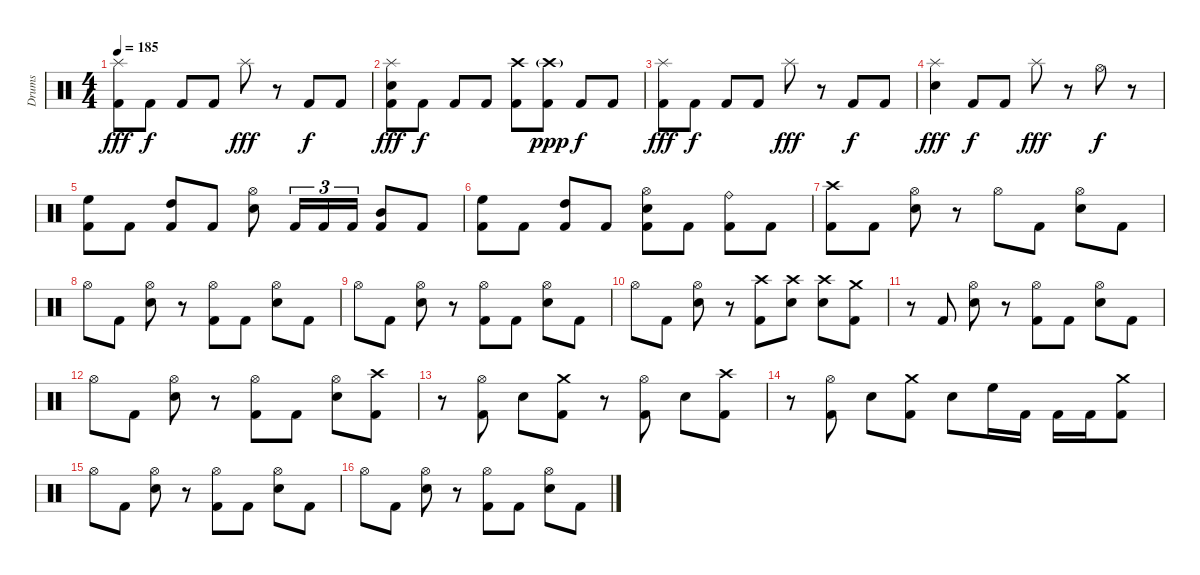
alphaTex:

\track ("Drums" "Drums") {instrument percussion}
\staff {score}
\articulation defaults
\ts (4 4)
\tempo 185
\clef neutral
\ks c
("Splash (hit)" "Kick (hit) 2").8{dy fff} "Kick (hit) 2".8{dy f} "Kick (hit) 2".8 "Kick (hit) 2".8 "Splash (hit)".8{dy fff} r.8 "Kick (hit) 2".8{dy f} "Kick (hit) 2".8 |
("Splash (hit)" "Electric Snare (hit)" "Kick (hit) 2").8{dy fff} "Kick (hit) 2".8{dy f} "Kick (hit) 2".8 "Kick (hit) 2".8 ("Crash high (hit)" "Kick (hit) 2").8 ("Crash high (hit)"{g} "Kick (hit) 2").8{dy ppp} "Kick (hit) 2".8{dy f} "Kick (hit) 2".8 |
("Splash (hit)" "Kick (hit) 2").8{dy fff} "Kick (hit) 2".8{dy f} "Kick (hit) 2".8 "Kick (hit) 2".8 "Splash (hit)".8{dy fff} r.8 "Kick (hit) 2".8{dy f} "Kick (hit) 2".8 |
("Splash (hit)" "Electric Snare (hit)").4{dy fff} "Kick (hit) 2".8{dy f} "Kick (hit) 2".8 "Splash (hit)".8{dy fff} r.8 "Hi-Hat (open)".8{dy f} r.8 |
("High Floor Tom (hit)" "Kick (hit) 2").8 "Kick (hit) 2".8 ("High Tom (hit)" "Kick (hit) 2").8 "Kick (hit) 2".8 ("Hi-Hat (open)" "Electric Snare (hit)").8 "Kick (hit) 2".16{tu (3 2)} "Kick (hit) 2".16{tu (3 2)} "Kick (hit) 2".16{tu (3 2)} ("Mid Tom (hit)" "Kick (hit) 2").8 "Kick (hit) 2".8 |
("High Floor Tom (hit)" "Kick (hit) 2").8 "Kick (hit) 2".8 ("High Tom (hit)" "Kick (hit) 2").8 "Kick (hit) 2".8 ("Hi-Hat (open)" "Electric Snare (hit)" "Kick (hit) 2").8 "Kick (hit) 2".8 ("Ride (bell)" "Kick (hit) 2").8 "Kick (hit) 2".8 |
("Crash high (hit)" "Kick (hit) 2").8 "Kick (hit) 2".8 ("Hi-Hat (open)" "Electric Snare (hit)").8 r.8 "Hi-Hat (open)".8 "Kick (hit) 2".8 ("Hi-Hat (open)" "Electric Snare (hit)").8 "Kick (hit) 2".8 |
"Hi-Hat (open)".8 "Kick (hit) 2".8 ("Hi-Hat (open)" "Electric Snare (hit)").8 r.8 ("Hi-Hat (open)" "Kick (hit) 2").8 "Kick (hit) 2".8 ("Hi-Hat (open)" "Electric Snare (hit)").8 "Kick (hit) 2".8 |
"Hi-Hat (open)".8 "Kick (hit) 2".8 ("Hi-Hat (open)" "Electric Snare (hit)").8 r.8 ("Hi-Hat (open)" "Kick (hit) 2").8 "Kick (hit) 2".8 ("Hi-Hat (open)" "Electric Snare (hit)").8 "Kick (hit) 2".8 |
"Hi-Hat (open)".8 "Kick (hit) 2".8 ("Hi-Hat (open)" "Electric Snare (hit)").8 r.8 ("Crash high (hit)" "Kick (hit) 2").8 ("Crash high (hit)" "Electric Snare (hit)").8 ("Crash high (hit)" "Electric Snare (hit)").8 ("Crash medium (hit)" "Kick (hit) 2").8 |
r.8 "Kick (hit) 2".8 ("Hi-Hat (open)" "Electric Snare (hit)").8 r.8 ("Hi-Hat (open)" "Kick (hit) 2").8 "Kick (hit) 2".8 ("Hi-Hat (open)" "Electric Snare (hit)").8 "Kick (hit) 2".8 |
"Hi-Hat (open)".8 "Kick (hit) 2".8 ("Hi-Hat (open)" "Electric Snare (hit)").8 r.8 ("Hi-Hat (open)" "Kick (hit) 2").8 "Kick (hit) 2".8 ("Hi-Hat (open)" "Electric Snare (hit)").8 ("Crash high (hit)" "Kick (hit) 2").8 |
r.8 ("Hi-Hat (open)" "Kick (hit) 2").8 "Electric Snare (hit)".8 ("Crash medium (hit)" "Kick (hit) 2").8 r.8 ("Hi-Hat (open)" "Kick (hit) 2").8 "Electric Snare (hit)".8 ("Crash high (hit)" "Kick (hit) 2").8 |
r.8 ("Hi-Hat (open)" "Kick (hit) 2").8 "Electric Snare (hit)".8 ("Crash medium (hit)" "Kick (hit) 2").8 "Electric Snare (hit)".8 "High Floor Tom (hit)".16 "Kick (hit) 2".16 "Kick (hit) 2".16 "Kick (hit) 2".16 ("Crash medium (hit)" "Kick (hit) 2").8 |
"Hi-Hat (open)".8 "Kick (hit) 2".8 ("Hi-Hat (open)" "Electric Snare (hit)").8 r.8 ("Hi-Hat (open)" "Kick (hit) 2").8 "Kick (hit) 2".8 ("Hi-Hat (open)" "Electric Snare (hit)").8 "Kick (hit) 2".8 |
"Hi-Hat (open)".8 "Kick (hit) 2".8 ("Hi-Hat (open)" "Electric Snare (hit)").8 r.8 ("Hi-Hat (open)" "Kick (hit) 2").8 "Kick (hit) 2".8 ("Hi-Hat (open)" "Electric Snare (hit)").8 "Kick (hit) 2".8
